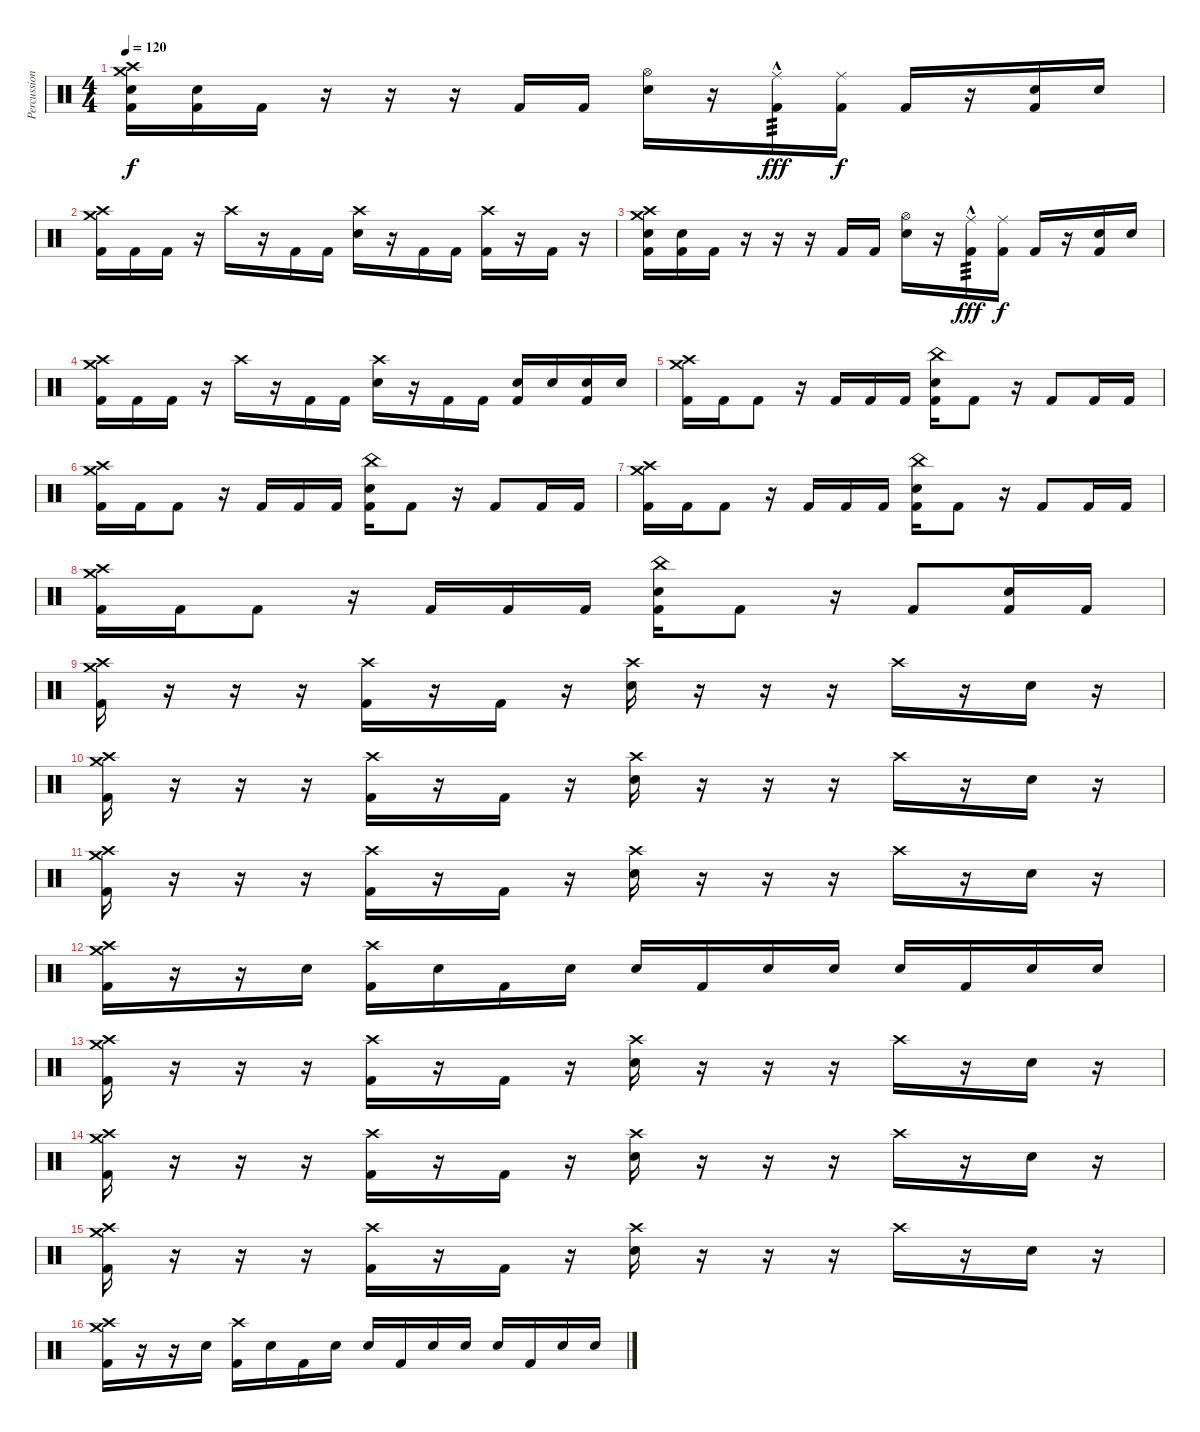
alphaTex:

\track ("Percussion" "Percussion") {instrument percussion}
\staff {score}
\articulation defaults
\ts (4 4)
\tempo 120
\clef neutral
\ks c
("Crash medium (hit)" "Crash high (hit)" "Electric Snare (hit)" "Kick (hit) 2").16{dy f} ("Electric Snare (hit)" "Kick (hit) 2").16 "Kick (hit) 2".16 r.16 r.16 r.16 "Kick (hit) 2".16 "Kick (hit) 2".16 ("Hi-Hat (open)" "Electric Snare (hit)").16 r.16 ("Ride (middle)"{hac} "Kick (hit) 2").16{tp 3 dy fff} ("Ride (middle)" "Kick (hit) 2").16{dy f} "Kick (hit) 2".16 r.16 ("Electric Snare (hit)" "Kick (hit) 2").16 "Electric Snare (hit)".16 |
("Crash medium (hit)" "Crash high (hit)" "Kick (hit) 2").16 "Kick (hit) 2".16 "Kick (hit) 2".16 r.16 "Crash high (hit)".16 r.16 "Kick (hit) 2".16 "Kick (hit) 2".16 ("Crash high (hit)" "Electric Snare (hit)").16 r.16 "Kick (hit) 2".16 "Kick (hit) 2".16 ("Crash high (hit)" "Kick (hit) 2").16 r.16 "Kick (hit) 2".16 r.16 |
("Crash medium (hit)" "Crash high (hit)" "Electric Snare (hit)" "Kick (hit) 2").16 ("Electric Snare (hit)" "Kick (hit) 2").16 "Kick (hit) 2".16 r.16 r.16 r.16 "Kick (hit) 2".16 "Kick (hit) 2".16 ("Hi-Hat (open)" "Electric Snare (hit)").16 r.16 ("Ride (middle)"{hac} "Kick (hit) 2").16{tp 3 dy fff} ("Ride (middle)" "Kick (hit) 2").16{dy f} "Kick (hit) 2".16 r.16 ("Electric Snare (hit)" "Kick (hit) 2").16 "Electric Snare (hit)".16 |
("Crash medium (hit)" "Crash high (hit)" "Kick (hit) 2").16 "Kick (hit) 2".16 "Kick (hit) 2".16 r.16 "Crash high (hit)".16 r.16 "Kick (hit) 2".16 "Kick (hit) 2".16 ("Crash high (hit)" "Electric Snare (hit)").16 r.16 "Kick (hit) 2".16 "Kick (hit) 2".16 ("Electric Snare (hit)" "Kick (hit) 2").16 "Electric Snare (hit)".16 ("Electric Snare (hit)" "Kick (hit) 2").16 "Electric Snare (hit)".16 |
("Crash medium (hit)" "Crash high (hit)" "Kick (hit) 2").16 "Kick (hit) 2".16 "Kick (hit) 2".8 r.16 "Kick (hit) 2".16 "Kick (hit) 2".16 "Kick (hit) 2".16 ("China (hit)" "Electric Snare (hit)" "Kick (hit) 2").16 "Kick (hit) 2".8 r.16 "Kick (hit) 2".8 "Kick (hit) 2".16 "Kick (hit) 2".16 |
("Crash medium (hit)" "Crash high (hit)" "Kick (hit) 2").16 "Kick (hit) 2".16 "Kick (hit) 2".8 r.16 "Kick (hit) 2".16 "Kick (hit) 2".16 "Kick (hit) 2".16 ("China (hit)" "Electric Snare (hit)" "Kick (hit) 2").16 "Kick (hit) 2".8 r.16 "Kick (hit) 2".8 "Kick (hit) 2".16 "Kick (hit) 2".16 |
("Crash medium (hit)" "Crash high (hit)" "Kick (hit) 2").16 "Kick (hit) 2".16 "Kick (hit) 2".8 r.16 "Kick (hit) 2".16 "Kick (hit) 2".16 "Kick (hit) 2".16 ("China (hit)" "Electric Snare (hit)" "Kick (hit) 2").16 "Kick (hit) 2".8 r.16 "Kick (hit) 2".8 "Kick (hit) 2".16 "Kick (hit) 2".16 |
("Crash medium (hit)" "Crash high (hit)" "Kick (hit) 2").16 "Kick (hit) 2".16 "Kick (hit) 2".8 r.16 "Kick (hit) 2".16 "Kick (hit) 2".16 "Kick (hit) 2".16 ("China (hit)" "Electric Snare (hit)" "Kick (hit) 2").16 "Kick (hit) 2".8 r.16 "Kick (hit) 2".8 ("Electric Snare (hit)" "Kick (hit) 2").16 "Kick (hit) 2".16 |
("Crash medium (hit)" "Crash high (hit)" "Kick (hit) 2").16 r.16 r.16 r.16 ("Crash high (hit)" "Kick (hit) 2").16 r.16 "Kick (hit) 2".16 r.16 ("Crash high (hit)" "Electric Snare (hit)").16 r.16 r.16 r.16 "Crash high (hit)".16 r.16 "Electric Snare (hit)".16 r.16 |
("Crash medium (hit)" "Crash high (hit)" "Kick (hit) 2").16 r.16 r.16 r.16 ("Crash high (hit)" "Kick (hit) 2").16 r.16 "Kick (hit) 2".16 r.16 ("Crash high (hit)" "Electric Snare (hit)").16 r.16 r.16 r.16 "Crash high (hit)".16 r.16 "Electric Snare (hit)".16 r.16 |
("Crash medium (hit)" "Crash high (hit)" "Kick (hit) 2").16 r.16 r.16 r.16 ("Crash high (hit)" "Kick (hit) 2").16 r.16 "Kick (hit) 2".16 r.16 ("Crash high (hit)" "Electric Snare (hit)").16 r.16 r.16 r.16 "Crash high (hit)".16 r.16 "Electric Snare (hit)".16 r.16 |
("Crash medium (hit)" "Crash high (hit)" "Kick (hit) 2").16 r.16 r.16 "Electric Snare (hit)".16 ("Crash high (hit)" "Kick (hit) 2").16 "Electric Snare (hit)".16 "Kick (hit) 2".16 "Electric Snare (hit)".16 "Electric Snare (hit)".16 "Kick (hit) 2".16 "Electric Snare (hit)".16 "Electric Snare (hit)".16 "Electric Snare (hit)".16 "Kick (hit) 2".16 "Electric Snare (hit)".16 "Electric Snare (hit)".16 |
("Crash medium (hit)" "Crash high (hit)" "Kick (hit) 2").16 r.16 r.16 r.16 ("Crash high (hit)" "Kick (hit) 2").16 r.16 "Kick (hit) 2".16 r.16 ("Crash high (hit)" "Electric Snare (hit)").16 r.16 r.16 r.16 "Crash high (hit)".16 r.16 "Electric Snare (hit)".16 r.16 |
("Crash medium (hit)" "Crash high (hit)" "Kick (hit) 2").16 r.16 r.16 r.16 ("Crash high (hit)" "Kick (hit) 2").16 r.16 "Kick (hit) 2".16 r.16 ("Crash high (hit)" "Electric Snare (hit)").16 r.16 r.16 r.16 "Crash high (hit)".16 r.16 "Electric Snare (hit)".16 r.16 |
("Crash medium (hit)" "Crash high (hit)" "Kick (hit) 2").16 r.16 r.16 r.16 ("Crash high (hit)" "Kick (hit) 2").16 r.16 "Kick (hit) 2".16 r.16 ("Crash high (hit)" "Electric Snare (hit)").16 r.16 r.16 r.16 "Crash high (hit)".16 r.16 "Electric Snare (hit)".16 r.16 |
("Crash medium (hit)" "Crash high (hit)" "Kick (hit) 2").16 r.16 r.16 "Electric Snare (hit)".16 ("Crash high (hit)" "Kick (hit) 2").16 "Electric Snare (hit)".16 "Kick (hit) 2".16 "Electric Snare (hit)".16 "Electric Snare (hit)".16 "Kick (hit) 2".16 "Electric Snare (hit)".16 "Electric Snare (hit)".16 "Electric Snare (hit)".16 "Kick (hit) 2".16 "Electric Snare (hit)".16 "Electric Snare (hit)".16
